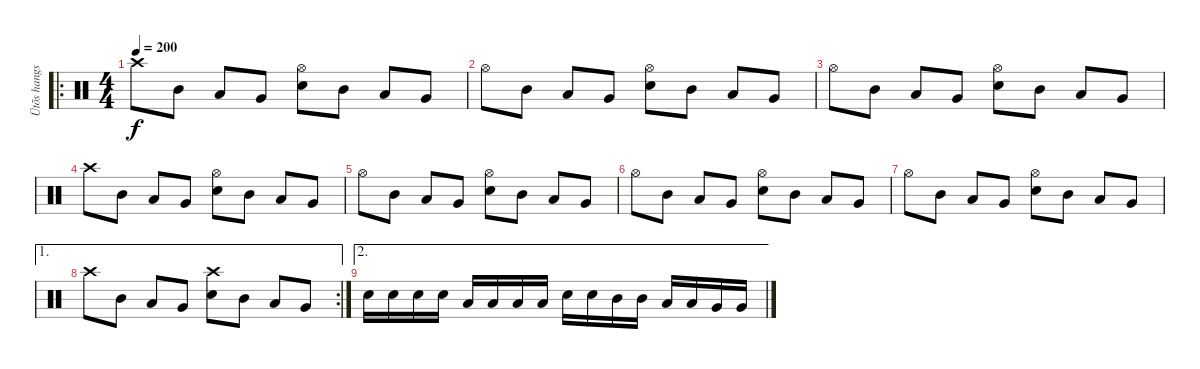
\track ("Ütõs hangszer" "Ütõs hangs") {instrument percussion}
\staff {score}
\articulation defaults
\ro
\ts (4 4)
\tempo 200
\clef neutral
\ks c "Crash high (hit)".8{dy f} "Mid Tom (hit)".8 "Low Tom (hit)".8 "Very Low Tom (hit)".8
("Hi-Hat (open)" "Snare (hit) 2").8 "Mid Tom (hit)".8 "Low Tom (hit)".8 "Very Low Tom (hit)".8 |
"Hi-Hat (open)".8 "Mid Tom (hit)".8 "Low Tom (hit)".8 "Very Low Tom (hit)".8 ("Hi-Hat (open)" "Snare (hit) 2").8 "Mid Tom (hit)".8 "Low Tom (hit)".8 "Very Low Tom (hit)".8 |
"Hi-Hat (open)".8 "Mid Tom (hit)".8 "Low Tom (hit)".8 "Very Low Tom (hit)".8 ("Hi-Hat (open)" "Snare (hit) 2").8 "Mid Tom (hit)".8 "Low Tom (hit)".8 "Very Low Tom (hit)".8 |
"Crash high (hit)".8 "Mid Tom (hit)".8 "Low Tom (hit)".8 "Very Low Tom (hit)".8 ("Hi-Hat (open)" "Snare (hit) 2").8 "Mid Tom (hit)".8 "Low Tom (hit)".8 "Very Low Tom (hit)".8 |
"Hi-Hat (open)".8 "Mid Tom (hit)".8 "Low Tom (hit)".8 "Very Low Tom (hit)".8 ("Hi-Hat (open)" "Snare (hit) 2").8 "Mid Tom (hit)".8 "Low Tom (hit)".8 "Very Low Tom (hit)".8 |
"Hi-Hat (open)".8 "Mid Tom (hit)".8 "Low Tom (hit)".8 "Very Low Tom (hit)".8 ("Hi-Hat (open)" "Snare (hit) 2").8 "Mid Tom (hit)".8 "Low Tom (hit)".8 "Very Low Tom (hit)".8 |
"Hi-Hat (open)".8 "Mid Tom (hit)".8 "Low Tom (hit)".8 "Very Low Tom (hit)".8 ("Hi-Hat (open)" "Snare (hit) 2").8 "Mid Tom (hit)".8 "Low Tom (hit)".8 "Very Low Tom (hit)".8 |
\ae 1
\rc 2 "Crash high (hit)".8 "Mid Tom (hit)".8 "Low Tom (hit)".8 "Very Low Tom (hit)".8
("Crash high (hit)" "Snare (hit) 2").8 "Mid Tom (hit)".8 "Low Tom (hit)".8 "Very Low Tom (hit)".8 |
\ae 2 "Electric Snare (hit)".16 "Electric Snare (hit)".16 "Electric Snare (hit)".16 "Electric Snare (hit)".16 "Low Tom (hit)".16 "Low Tom (hit)".16 "Low Tom (hit)".16 "Low Tom (hit)".16 "Electric Snare (hit)".16 "Electric Snare (hit)".16 "Mid Tom (hit)".16 "Mid Tom (hit)".16 "Low Tom (hit)".16 "Low Tom (hit)".16 "Very Low Tom (hit)".16 "Very Low Tom (hit)".16
